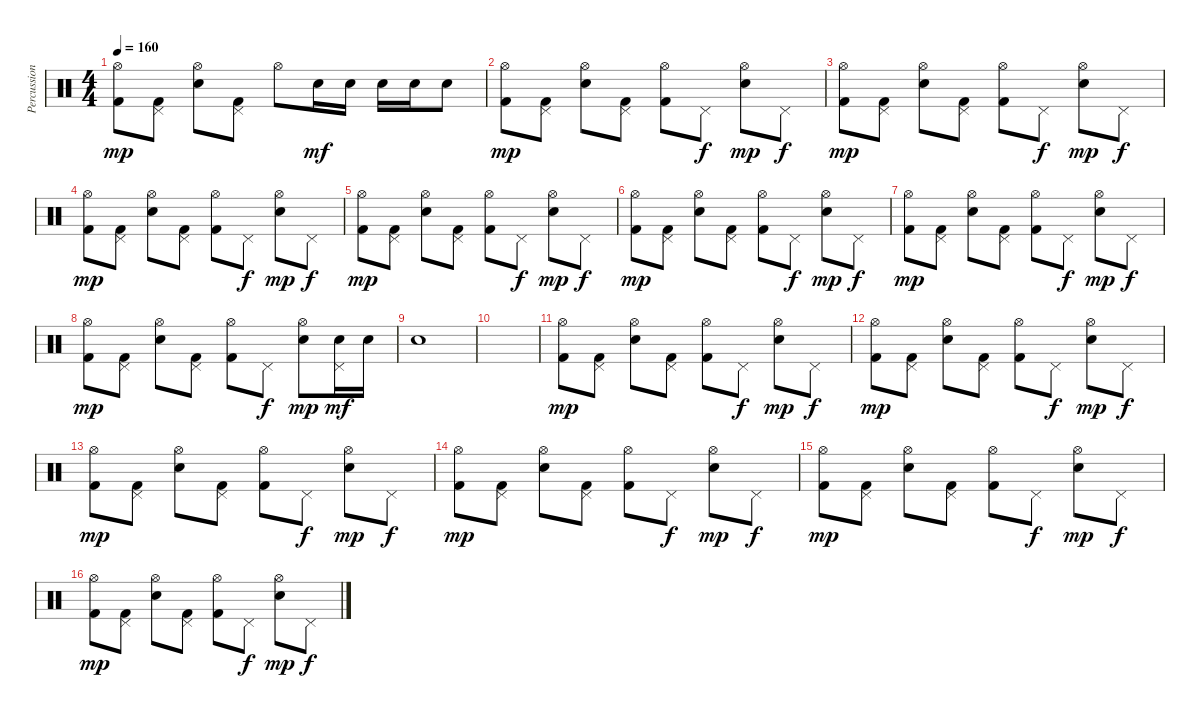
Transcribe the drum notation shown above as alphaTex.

\track ("Percussions" "Percussion") {instrument percussion}
\staff {score}
\articulation defaults
\ts (4 4)
\tempo 160
\clef neutral
\ks c
("Hi-Hat (open)" "Kick (hit) 2").8{dy mp} ("Pedal Hi-Hat (hit)" "Kick (hit) 2").8 ("Hi-Hat (open)" "Snare (hit) 2").8 ("Pedal Hi-Hat (hit)" "Kick (hit) 2").8 "Hi-Hat (open)".8 "Snare (hit) 2".16{dy mf} "Snare (hit) 2".16 "Snare (hit) 2".16 "Snare (hit) 2".16 "Snare (hit) 2".8 |
("Hi-Hat (open)" "Kick (hit) 2").8{dy mp} ("Pedal Hi-Hat (hit)" "Kick (hit) 2").8 ("Hi-Hat (open)" "Snare (hit) 2").8 ("Pedal Hi-Hat (hit)" "Kick (hit) 2").8 ("Hi-Hat (open)" "Kick (hit) 2").8 "Pedal Hi-Hat (hit)".8{dy f} ("Hi-Hat (open)" "Snare (hit) 2").8{dy mp} "Pedal Hi-Hat (hit)".8{dy f} |
("Hi-Hat (open)" "Kick (hit) 2").8{dy mp} ("Pedal Hi-Hat (hit)" "Kick (hit) 2").8 ("Hi-Hat (open)" "Snare (hit) 2").8 ("Pedal Hi-Hat (hit)" "Kick (hit) 2").8 ("Hi-Hat (open)" "Kick (hit) 2").8 "Pedal Hi-Hat (hit)".8{dy f} ("Hi-Hat (open)" "Snare (hit) 2").8{dy mp} "Pedal Hi-Hat (hit)".8{dy f} |
("Hi-Hat (open)" "Kick (hit) 2").8{dy mp} ("Pedal Hi-Hat (hit)" "Kick (hit) 2").8 ("Hi-Hat (open)" "Snare (hit) 2").8 ("Pedal Hi-Hat (hit)" "Kick (hit) 2").8 ("Hi-Hat (open)" "Kick (hit) 2").8 "Pedal Hi-Hat (hit)".8{dy f} ("Hi-Hat (open)" "Snare (hit) 2").8{dy mp} "Pedal Hi-Hat (hit)".8{dy f} |
("Hi-Hat (open)" "Kick (hit) 2").8{dy mp} ("Pedal Hi-Hat (hit)" "Kick (hit) 2").8 ("Hi-Hat (open)" "Snare (hit) 2").8 ("Pedal Hi-Hat (hit)" "Kick (hit) 2").8 ("Hi-Hat (open)" "Kick (hit) 2").8 "Pedal Hi-Hat (hit)".8{dy f} ("Hi-Hat (open)" "Snare (hit) 2").8{dy mp} "Pedal Hi-Hat (hit)".8{dy f} |
("Hi-Hat (open)" "Kick (hit) 2").8{dy mp} ("Pedal Hi-Hat (hit)" "Kick (hit) 2").8 ("Hi-Hat (open)" "Snare (hit) 2").8 ("Pedal Hi-Hat (hit)" "Kick (hit) 2").8 ("Hi-Hat (open)" "Kick (hit) 2").8 "Pedal Hi-Hat (hit)".8{dy f} ("Hi-Hat (open)" "Snare (hit) 2").8{dy mp} "Pedal Hi-Hat (hit)".8{dy f} |
("Hi-Hat (open)" "Kick (hit) 2").8{dy mp} ("Pedal Hi-Hat (hit)" "Kick (hit) 2").8 ("Hi-Hat (open)" "Snare (hit) 2").8 ("Pedal Hi-Hat (hit)" "Kick (hit) 2").8 ("Hi-Hat (open)" "Kick (hit) 2").8 "Pedal Hi-Hat (hit)".8{dy f} ("Hi-Hat (open)" "Snare (hit) 2").8{dy mp} "Pedal Hi-Hat (hit)".8{dy f} |
("Hi-Hat (open)" "Kick (hit) 2").8{dy mp} ("Pedal Hi-Hat (hit)" "Kick (hit) 2").8 ("Hi-Hat (open)" "Snare (hit) 2").8 ("Pedal Hi-Hat (hit)" "Kick (hit) 2").8 ("Hi-Hat (open)" "Kick (hit) 2").8 "Pedal Hi-Hat (hit)".8{dy f} ("Hi-Hat (open)" "Snare (hit) 2").8{dy mp} ("Pedal Hi-Hat (hit)" "Snare (hit) 2").16{dy mf} "Snare (hit) 2".16 |
"Electric Snare (hit)".1 |
|
("Hi-Hat (open)" "Kick (hit) 2").8{dy mp} ("Pedal Hi-Hat (hit)" "Kick (hit) 2").8 ("Hi-Hat (open)" "Snare (hit) 2").8 ("Pedal Hi-Hat (hit)" "Kick (hit) 2").8 ("Hi-Hat (open)" "Kick (hit) 2").8 "Pedal Hi-Hat (hit)".8{dy f} ("Hi-Hat (open)" "Snare (hit) 2").8{dy mp} "Pedal Hi-Hat (hit)".8{dy f} |
("Hi-Hat (open)" "Kick (hit) 2").8{dy mp} ("Pedal Hi-Hat (hit)" "Kick (hit) 2").8 ("Hi-Hat (open)" "Snare (hit) 2").8 ("Pedal Hi-Hat (hit)" "Kick (hit) 2").8 ("Hi-Hat (open)" "Kick (hit) 2").8 "Pedal Hi-Hat (hit)".8{dy f} ("Hi-Hat (open)" "Snare (hit) 2").8{dy mp} "Pedal Hi-Hat (hit)".8{dy f} |
("Hi-Hat (open)" "Kick (hit) 2").8{dy mp} ("Pedal Hi-Hat (hit)" "Kick (hit) 2").8 ("Hi-Hat (open)" "Snare (hit) 2").8 ("Pedal Hi-Hat (hit)" "Kick (hit) 2").8 ("Hi-Hat (open)" "Kick (hit) 2").8 "Pedal Hi-Hat (hit)".8{dy f} ("Hi-Hat (open)" "Snare (hit) 2").8{dy mp} "Pedal Hi-Hat (hit)".8{dy f} |
("Hi-Hat (open)" "Kick (hit) 2").8{dy mp} ("Pedal Hi-Hat (hit)" "Kick (hit) 2").8 ("Hi-Hat (open)" "Snare (hit) 2").8 ("Pedal Hi-Hat (hit)" "Kick (hit) 2").8 ("Hi-Hat (open)" "Kick (hit) 2").8 "Pedal Hi-Hat (hit)".8{dy f} ("Hi-Hat (open)" "Snare (hit) 2").8{dy mp} "Pedal Hi-Hat (hit)".8{dy f} |
("Hi-Hat (open)" "Kick (hit) 2").8{dy mp} ("Pedal Hi-Hat (hit)" "Kick (hit) 2").8 ("Hi-Hat (open)" "Snare (hit) 2").8 ("Pedal Hi-Hat (hit)" "Kick (hit) 2").8 ("Hi-Hat (open)" "Kick (hit) 2").8 "Pedal Hi-Hat (hit)".8{dy f} ("Hi-Hat (open)" "Snare (hit) 2").8{dy mp} "Pedal Hi-Hat (hit)".8{dy f} |
("Hi-Hat (open)" "Kick (hit) 2").8{dy mp} ("Pedal Hi-Hat (hit)" "Kick (hit) 2").8 ("Hi-Hat (open)" "Snare (hit) 2").8 ("Pedal Hi-Hat (hit)" "Kick (hit) 2").8 ("Hi-Hat (open)" "Kick (hit) 2").8 "Pedal Hi-Hat (hit)".8{dy f} ("Hi-Hat (open)" "Snare (hit) 2").8{dy mp} "Pedal Hi-Hat (hit)".8{dy f}
